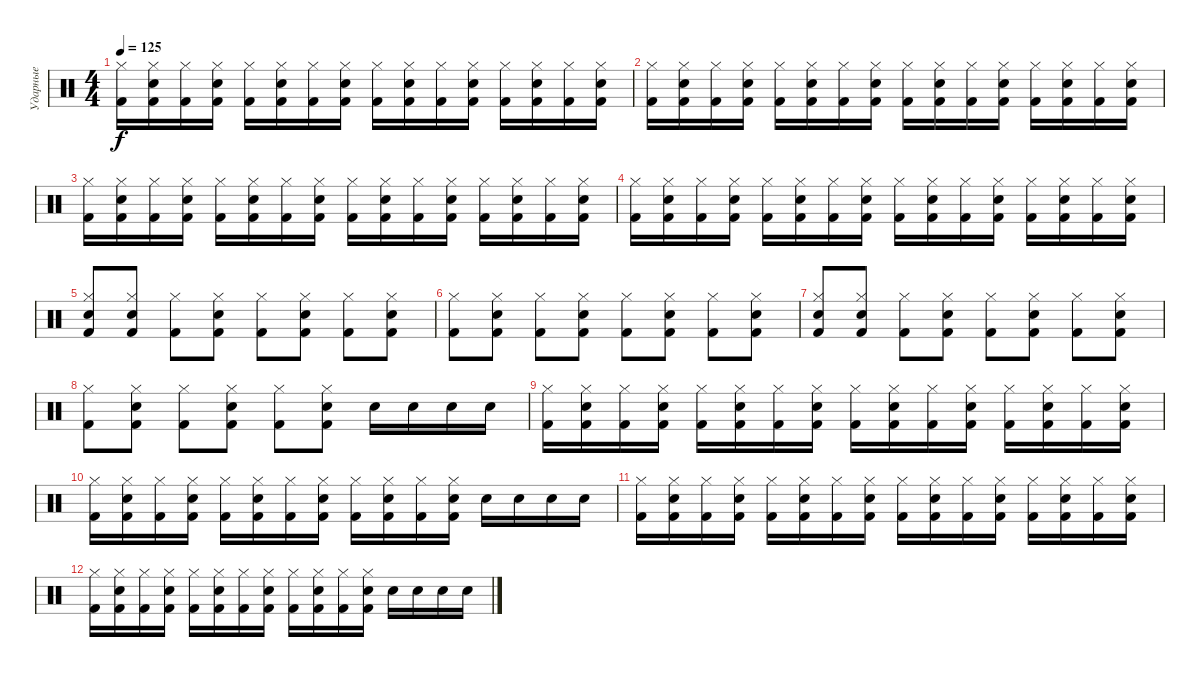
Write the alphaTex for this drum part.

\track ("Ударные" "Ударные") {instrument percussion}
\staff {score}
\articulation defaults
\ts (4 4)
\tempo 125
\clef neutral
\ks c
("Kick (hit) 2" "Hi-Hat (closed)").16{dy f} ("Kick (hit) 2" "Hi-Hat (closed)" "Electric Snare (hit)").16 ("Kick (hit) 2" "Hi-Hat (closed)").16 ("Kick (hit) 2" "Hi-Hat (closed)" "Electric Snare (hit)").16 ("Kick (hit) 2" "Hi-Hat (closed)").16 ("Kick (hit) 2" "Hi-Hat (closed)" "Electric Snare (hit)").16 ("Kick (hit) 2" "Hi-Hat (closed)").16 ("Kick (hit) 2" "Hi-Hat (closed)" "Electric Snare (hit)").16 ("Kick (hit) 2" "Hi-Hat (closed)").16 ("Kick (hit) 2" "Hi-Hat (closed)" "Electric Snare (hit)").16 ("Kick (hit) 2" "Hi-Hat (closed)").16 ("Kick (hit) 2" "Hi-Hat (closed)" "Electric Snare (hit)").16 ("Kick (hit) 2" "Hi-Hat (closed)").16 ("Kick (hit) 2" "Hi-Hat (closed)" "Electric Snare (hit)").16 ("Kick (hit) 2" "Hi-Hat (closed)").16 ("Kick (hit) 2" "Hi-Hat (closed)" "Electric Snare (hit)").16 |
("Kick (hit) 2" "Hi-Hat (closed)").16 ("Kick (hit) 2" "Hi-Hat (closed)" "Electric Snare (hit)").16 ("Kick (hit) 2" "Hi-Hat (closed)").16 ("Kick (hit) 2" "Hi-Hat (closed)" "Electric Snare (hit)").16 ("Kick (hit) 2" "Hi-Hat (closed)").16 ("Kick (hit) 2" "Hi-Hat (closed)" "Electric Snare (hit)").16 ("Kick (hit) 2" "Hi-Hat (closed)").16 ("Kick (hit) 2" "Hi-Hat (closed)" "Electric Snare (hit)").16 ("Kick (hit) 2" "Hi-Hat (closed)").16 ("Kick (hit) 2" "Hi-Hat (closed)" "Electric Snare (hit)").16 ("Kick (hit) 2" "Hi-Hat (closed)").16 ("Kick (hit) 2" "Hi-Hat (closed)" "Electric Snare (hit)").16 ("Kick (hit) 2" "Hi-Hat (closed)").16 ("Kick (hit) 2" "Hi-Hat (closed)" "Electric Snare (hit)").16 ("Kick (hit) 2" "Hi-Hat (closed)").16 ("Kick (hit) 2" "Hi-Hat (closed)" "Electric Snare (hit)").16 |
("Kick (hit) 2" "Hi-Hat (closed)").16 ("Kick (hit) 2" "Hi-Hat (closed)" "Electric Snare (hit)").16 ("Kick (hit) 2" "Hi-Hat (closed)").16 ("Kick (hit) 2" "Hi-Hat (closed)" "Electric Snare (hit)").16 ("Kick (hit) 2" "Hi-Hat (closed)").16 ("Kick (hit) 2" "Hi-Hat (closed)" "Electric Snare (hit)").16 ("Kick (hit) 2" "Hi-Hat (closed)").16 ("Kick (hit) 2" "Hi-Hat (closed)" "Electric Snare (hit)").16 ("Kick (hit) 2" "Hi-Hat (closed)").16 ("Kick (hit) 2" "Hi-Hat (closed)" "Electric Snare (hit)").16 ("Kick (hit) 2" "Hi-Hat (closed)").16 ("Kick (hit) 2" "Hi-Hat (closed)" "Electric Snare (hit)").16 ("Kick (hit) 2" "Hi-Hat (closed)").16 ("Kick (hit) 2" "Hi-Hat (closed)" "Electric Snare (hit)").16 ("Kick (hit) 2" "Hi-Hat (closed)").16 ("Kick (hit) 2" "Hi-Hat (closed)" "Electric Snare (hit)").16 |
("Kick (hit) 2" "Hi-Hat (closed)").16 ("Kick (hit) 2" "Hi-Hat (closed)" "Electric Snare (hit)").16 ("Kick (hit) 2" "Hi-Hat (closed)").16 ("Kick (hit) 2" "Hi-Hat (closed)" "Electric Snare (hit)").16 ("Kick (hit) 2" "Hi-Hat (closed)").16 ("Kick (hit) 2" "Hi-Hat (closed)" "Electric Snare (hit)").16 ("Kick (hit) 2" "Hi-Hat (closed)").16 ("Kick (hit) 2" "Hi-Hat (closed)" "Electric Snare (hit)").16 ("Kick (hit) 2" "Hi-Hat (closed)").16 ("Kick (hit) 2" "Hi-Hat (closed)" "Electric Snare (hit)").16 ("Kick (hit) 2" "Hi-Hat (closed)").16 ("Kick (hit) 2" "Hi-Hat (closed)" "Electric Snare (hit)").16 ("Kick (hit) 2" "Hi-Hat (closed)").16 ("Kick (hit) 2" "Hi-Hat (closed)" "Electric Snare (hit)").16 ("Kick (hit) 2" "Hi-Hat (closed)").16 ("Kick (hit) 2" "Hi-Hat (closed)" "Electric Snare (hit)").16 |
("Kick (hit) 2" "Hi-Hat (closed)" "Electric Snare (hit)").8 ("Kick (hit) 2" "Hi-Hat (closed)" "Electric Snare (hit)").8 ("Kick (hit) 2" "Hi-Hat (closed)").8 ("Kick (hit) 2" "Hi-Hat (closed)" "Electric Snare (hit)").8 ("Kick (hit) 2" "Hi-Hat (closed)").8 ("Kick (hit) 2" "Hi-Hat (closed)" "Electric Snare (hit)").8 ("Kick (hit) 2" "Hi-Hat (closed)").8 ("Kick (hit) 2" "Hi-Hat (closed)" "Electric Snare (hit)").8 |
("Kick (hit) 2" "Hi-Hat (closed)").8 ("Kick (hit) 2" "Hi-Hat (closed)" "Electric Snare (hit)").8 ("Kick (hit) 2" "Hi-Hat (closed)").8 ("Kick (hit) 2" "Hi-Hat (closed)" "Electric Snare (hit)").8 ("Kick (hit) 2" "Hi-Hat (closed)").8 ("Kick (hit) 2" "Hi-Hat (closed)" "Electric Snare (hit)").8 ("Kick (hit) 2" "Hi-Hat (closed)").8 ("Kick (hit) 2" "Hi-Hat (closed)" "Electric Snare (hit)").8 |
("Kick (hit) 2" "Hi-Hat (closed)" "Electric Snare (hit)").8 ("Kick (hit) 2" "Hi-Hat (closed)" "Electric Snare (hit)").8 ("Kick (hit) 2" "Hi-Hat (closed)").8 ("Kick (hit) 2" "Hi-Hat (closed)" "Electric Snare (hit)").8 ("Kick (hit) 2" "Hi-Hat (closed)").8 ("Kick (hit) 2" "Hi-Hat (closed)" "Electric Snare (hit)").8 ("Kick (hit) 2" "Hi-Hat (closed)").8 ("Kick (hit) 2" "Hi-Hat (closed)" "Electric Snare (hit)").8 |
("Kick (hit) 2" "Hi-Hat (closed)").8 ("Kick (hit) 2" "Hi-Hat (closed)" "Electric Snare (hit)").8 ("Kick (hit) 2" "Hi-Hat (closed)").8 ("Kick (hit) 2" "Hi-Hat (closed)" "Electric Snare (hit)").8 ("Kick (hit) 2" "Hi-Hat (closed)").8 ("Kick (hit) 2" "Hi-Hat (closed)" "Electric Snare (hit)").8 "Electric Snare (hit)".16 "Electric Snare (hit)".16 "Electric Snare (hit)".16 "Electric Snare (hit)".16 |
("Kick (hit) 2" "Hi-Hat (closed)").16 ("Kick (hit) 2" "Hi-Hat (closed)" "Electric Snare (hit)").16 ("Kick (hit) 2" "Hi-Hat (closed)").16 ("Kick (hit) 2" "Hi-Hat (closed)" "Electric Snare (hit)").16 ("Kick (hit) 2" "Hi-Hat (closed)").16 ("Kick (hit) 2" "Hi-Hat (closed)" "Electric Snare (hit)").16 ("Kick (hit) 2" "Hi-Hat (closed)").16 ("Kick (hit) 2" "Hi-Hat (closed)" "Electric Snare (hit)").16 ("Kick (hit) 2" "Hi-Hat (closed)").16 ("Kick (hit) 2" "Hi-Hat (closed)" "Electric Snare (hit)").16 ("Kick (hit) 2" "Hi-Hat (closed)").16 ("Kick (hit) 2" "Hi-Hat (closed)" "Electric Snare (hit)").16 ("Kick (hit) 2" "Hi-Hat (closed)").16 ("Kick (hit) 2" "Hi-Hat (closed)" "Electric Snare (hit)").16 ("Kick (hit) 2" "Hi-Hat (closed)").16 ("Kick (hit) 2" "Hi-Hat (closed)" "Electric Snare (hit)").16 |
("Kick (hit) 2" "Hi-Hat (closed)").16 ("Kick (hit) 2" "Hi-Hat (closed)" "Electric Snare (hit)").16 ("Kick (hit) 2" "Hi-Hat (closed)").16 ("Kick (hit) 2" "Hi-Hat (closed)" "Electric Snare (hit)").16 ("Kick (hit) 2" "Hi-Hat (closed)").16 ("Kick (hit) 2" "Hi-Hat (closed)" "Electric Snare (hit)").16 ("Kick (hit) 2" "Hi-Hat (closed)").16 ("Kick (hit) 2" "Hi-Hat (closed)" "Electric Snare (hit)").16 ("Kick (hit) 2" "Hi-Hat (closed)").16 ("Kick (hit) 2" "Hi-Hat (closed)" "Electric Snare (hit)").16 ("Kick (hit) 2" "Hi-Hat (closed)").16 ("Kick (hit) 2" "Hi-Hat (closed)" "Electric Snare (hit)").16 "Electric Snare (hit)".16 "Electric Snare (hit)".16 "Electric Snare (hit)".16 "Electric Snare (hit)".16 |
("Kick (hit) 2" "Hi-Hat (closed)").16 ("Kick (hit) 2" "Hi-Hat (closed)" "Electric Snare (hit)").16 ("Kick (hit) 2" "Hi-Hat (closed)").16 ("Kick (hit) 2" "Hi-Hat (closed)" "Electric Snare (hit)").16 ("Kick (hit) 2" "Hi-Hat (closed)").16 ("Kick (hit) 2" "Hi-Hat (closed)" "Electric Snare (hit)").16 ("Kick (hit) 2" "Hi-Hat (closed)").16 ("Kick (hit) 2" "Hi-Hat (closed)" "Electric Snare (hit)").16 ("Kick (hit) 2" "Hi-Hat (closed)").16 ("Kick (hit) 2" "Hi-Hat (closed)" "Electric Snare (hit)").16 ("Kick (hit) 2" "Hi-Hat (closed)").16 ("Kick (hit) 2" "Hi-Hat (closed)" "Electric Snare (hit)").16 ("Kick (hit) 2" "Hi-Hat (closed)").16 ("Kick (hit) 2" "Hi-Hat (closed)" "Electric Snare (hit)").16 ("Kick (hit) 2" "Hi-Hat (closed)").16 ("Kick (hit) 2" "Hi-Hat (closed)" "Electric Snare (hit)").16 |
("Kick (hit) 2" "Hi-Hat (closed)").16 ("Kick (hit) 2" "Hi-Hat (closed)" "Electric Snare (hit)").16 ("Kick (hit) 2" "Hi-Hat (closed)").16 ("Kick (hit) 2" "Hi-Hat (closed)" "Electric Snare (hit)").16 ("Kick (hit) 2" "Hi-Hat (closed)").16 ("Kick (hit) 2" "Hi-Hat (closed)" "Electric Snare (hit)").16 ("Kick (hit) 2" "Hi-Hat (closed)").16 ("Kick (hit) 2" "Hi-Hat (closed)" "Electric Snare (hit)").16 ("Kick (hit) 2" "Hi-Hat (closed)").16 ("Kick (hit) 2" "Hi-Hat (closed)" "Electric Snare (hit)").16 ("Kick (hit) 2" "Hi-Hat (closed)").16 ("Kick (hit) 2" "Hi-Hat (closed)" "Electric Snare (hit)").16 "Electric Snare (hit)".16 "Electric Snare (hit)".16 "Electric Snare (hit)".16 "Electric Snare (hit)".16
